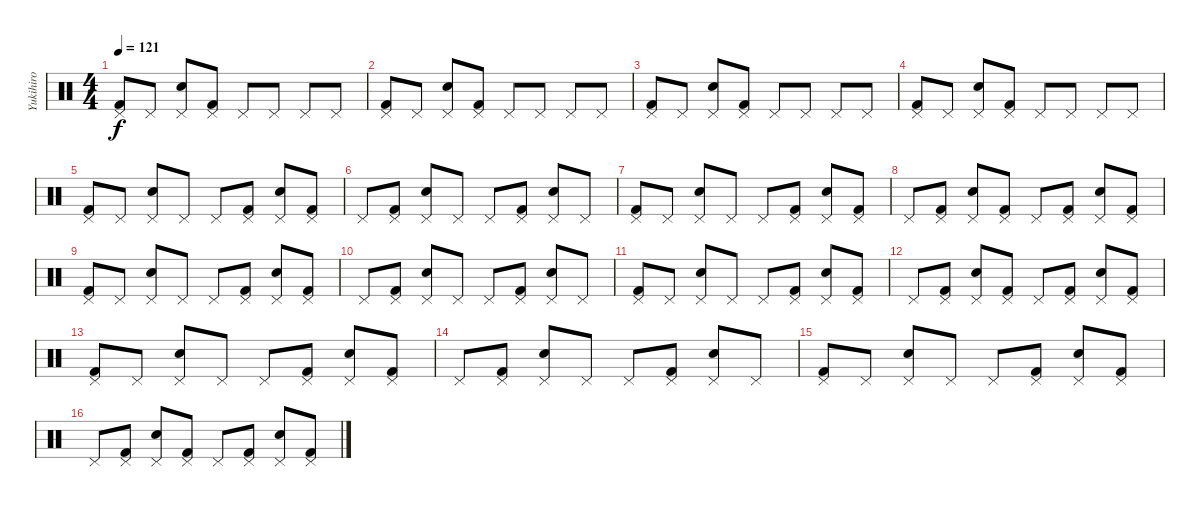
\track ("Yukihiro" "Yukihiro") {instrument percussion}
\staff {score}
\articulation defaults
\ts (4 4)
\tempo 121
\clef neutral
\ks c
("Pedal Hi-Hat (hit)" "Kick (hit) 2").8{dy f} "Pedal Hi-Hat (hit)".8 ("Pedal Hi-Hat (hit)" "Electric Snare (hit)").8 ("Pedal Hi-Hat (hit)" "Kick (hit) 2").8 "Pedal Hi-Hat (hit)".8 "Pedal Hi-Hat (hit)".8 "Pedal Hi-Hat (hit)".8 "Pedal Hi-Hat (hit)".8 |
("Pedal Hi-Hat (hit)" "Kick (hit) 2").8 "Pedal Hi-Hat (hit)".8 ("Pedal Hi-Hat (hit)" "Electric Snare (hit)").8 ("Pedal Hi-Hat (hit)" "Kick (hit) 2").8 "Pedal Hi-Hat (hit)".8 "Pedal Hi-Hat (hit)".8 "Pedal Hi-Hat (hit)".8 "Pedal Hi-Hat (hit)".8 |
("Pedal Hi-Hat (hit)" "Kick (hit) 2").8 "Pedal Hi-Hat (hit)".8 ("Pedal Hi-Hat (hit)" "Electric Snare (hit)").8 ("Pedal Hi-Hat (hit)" "Kick (hit) 2").8 "Pedal Hi-Hat (hit)".8 "Pedal Hi-Hat (hit)".8 "Pedal Hi-Hat (hit)".8 "Pedal Hi-Hat (hit)".8 |
("Pedal Hi-Hat (hit)" "Kick (hit) 2").8 "Pedal Hi-Hat (hit)".8 ("Pedal Hi-Hat (hit)" "Electric Snare (hit)").8 ("Pedal Hi-Hat (hit)" "Kick (hit) 2").8 "Pedal Hi-Hat (hit)".8 "Pedal Hi-Hat (hit)".8 "Pedal Hi-Hat (hit)".8 "Pedal Hi-Hat (hit)".8 |
("Pedal Hi-Hat (hit)" "Kick (hit) 2").8 "Pedal Hi-Hat (hit)".8 ("Pedal Hi-Hat (hit)" "Electric Snare (hit)").8 "Pedal Hi-Hat (hit)".8 "Pedal Hi-Hat (hit)".8 ("Pedal Hi-Hat (hit)" "Kick (hit) 2").8 ("Pedal Hi-Hat (hit)" "Electric Snare (hit)").8 ("Pedal Hi-Hat (hit)" "Kick (hit) 2").8 |
"Pedal Hi-Hat (hit)".8 ("Pedal Hi-Hat (hit)" "Kick (hit) 2").8 ("Pedal Hi-Hat (hit)" "Electric Snare (hit)").8 "Pedal Hi-Hat (hit)".8 "Pedal Hi-Hat (hit)".8 ("Pedal Hi-Hat (hit)" "Kick (hit) 2").8 ("Pedal Hi-Hat (hit)" "Electric Snare (hit)").8 "Pedal Hi-Hat (hit)".8 |
("Pedal Hi-Hat (hit)" "Kick (hit) 2").8 "Pedal Hi-Hat (hit)".8 ("Pedal Hi-Hat (hit)" "Electric Snare (hit)").8 "Pedal Hi-Hat (hit)".8 "Pedal Hi-Hat (hit)".8 ("Pedal Hi-Hat (hit)" "Kick (hit) 2").8 ("Pedal Hi-Hat (hit)" "Electric Snare (hit)").8 ("Pedal Hi-Hat (hit)" "Kick (hit) 2").8 |
"Pedal Hi-Hat (hit)".8 ("Pedal Hi-Hat (hit)" "Kick (hit) 2").8 ("Pedal Hi-Hat (hit)" "Electric Snare (hit)").8 ("Pedal Hi-Hat (hit)" "Kick (hit) 2").8 "Pedal Hi-Hat (hit)".8 ("Pedal Hi-Hat (hit)" "Kick (hit) 2").8 ("Pedal Hi-Hat (hit)" "Electric Snare (hit)").8 ("Pedal Hi-Hat (hit)" "Kick (hit) 2").8 |
("Pedal Hi-Hat (hit)" "Kick (hit) 2").8 "Pedal Hi-Hat (hit)".8 ("Pedal Hi-Hat (hit)" "Electric Snare (hit)").8 "Pedal Hi-Hat (hit)".8 "Pedal Hi-Hat (hit)".8 ("Pedal Hi-Hat (hit)" "Kick (hit) 2").8 ("Pedal Hi-Hat (hit)" "Electric Snare (hit)").8 ("Pedal Hi-Hat (hit)" "Kick (hit) 2").8 |
"Pedal Hi-Hat (hit)".8 ("Pedal Hi-Hat (hit)" "Kick (hit) 2").8 ("Pedal Hi-Hat (hit)" "Electric Snare (hit)").8 "Pedal Hi-Hat (hit)".8 "Pedal Hi-Hat (hit)".8 ("Pedal Hi-Hat (hit)" "Kick (hit) 2").8 ("Pedal Hi-Hat (hit)" "Electric Snare (hit)").8 "Pedal Hi-Hat (hit)".8 |
("Pedal Hi-Hat (hit)" "Kick (hit) 2").8 "Pedal Hi-Hat (hit)".8 ("Pedal Hi-Hat (hit)" "Electric Snare (hit)").8 "Pedal Hi-Hat (hit)".8 "Pedal Hi-Hat (hit)".8 ("Pedal Hi-Hat (hit)" "Kick (hit) 2").8 ("Pedal Hi-Hat (hit)" "Electric Snare (hit)").8 ("Pedal Hi-Hat (hit)" "Kick (hit) 2").8 |
"Pedal Hi-Hat (hit)".8 ("Pedal Hi-Hat (hit)" "Kick (hit) 2").8 ("Pedal Hi-Hat (hit)" "Electric Snare (hit)").8 ("Pedal Hi-Hat (hit)" "Kick (hit) 2").8 "Pedal Hi-Hat (hit)".8 ("Pedal Hi-Hat (hit)" "Kick (hit) 2").8 ("Pedal Hi-Hat (hit)" "Electric Snare (hit)").8 ("Pedal Hi-Hat (hit)" "Kick (hit) 2").8 |
("Pedal Hi-Hat (hit)" "Kick (hit) 2").8 "Pedal Hi-Hat (hit)".8 ("Pedal Hi-Hat (hit)" "Electric Snare (hit)").8 "Pedal Hi-Hat (hit)".8 "Pedal Hi-Hat (hit)".8 ("Pedal Hi-Hat (hit)" "Kick (hit) 2").8 ("Pedal Hi-Hat (hit)" "Electric Snare (hit)").8 ("Pedal Hi-Hat (hit)" "Kick (hit) 2").8 |
"Pedal Hi-Hat (hit)".8 ("Pedal Hi-Hat (hit)" "Kick (hit) 2").8 ("Pedal Hi-Hat (hit)" "Electric Snare (hit)").8 "Pedal Hi-Hat (hit)".8 "Pedal Hi-Hat (hit)".8 ("Pedal Hi-Hat (hit)" "Kick (hit) 2").8 ("Pedal Hi-Hat (hit)" "Electric Snare (hit)").8 "Pedal Hi-Hat (hit)".8 |
("Pedal Hi-Hat (hit)" "Kick (hit) 2").8 "Pedal Hi-Hat (hit)".8 ("Pedal Hi-Hat (hit)" "Electric Snare (hit)").8 "Pedal Hi-Hat (hit)".8 "Pedal Hi-Hat (hit)".8 ("Pedal Hi-Hat (hit)" "Kick (hit) 2").8 ("Pedal Hi-Hat (hit)" "Electric Snare (hit)").8 ("Pedal Hi-Hat (hit)" "Kick (hit) 2").8 |
"Pedal Hi-Hat (hit)".8 ("Pedal Hi-Hat (hit)" "Kick (hit) 2").8 ("Pedal Hi-Hat (hit)" "Electric Snare (hit)").8 ("Pedal Hi-Hat (hit)" "Kick (hit) 2").8 "Pedal Hi-Hat (hit)".8 ("Pedal Hi-Hat (hit)" "Kick (hit) 2").8 ("Pedal Hi-Hat (hit)" "Electric Snare (hit)").8 ("Pedal Hi-Hat (hit)" "Kick (hit) 2").8
